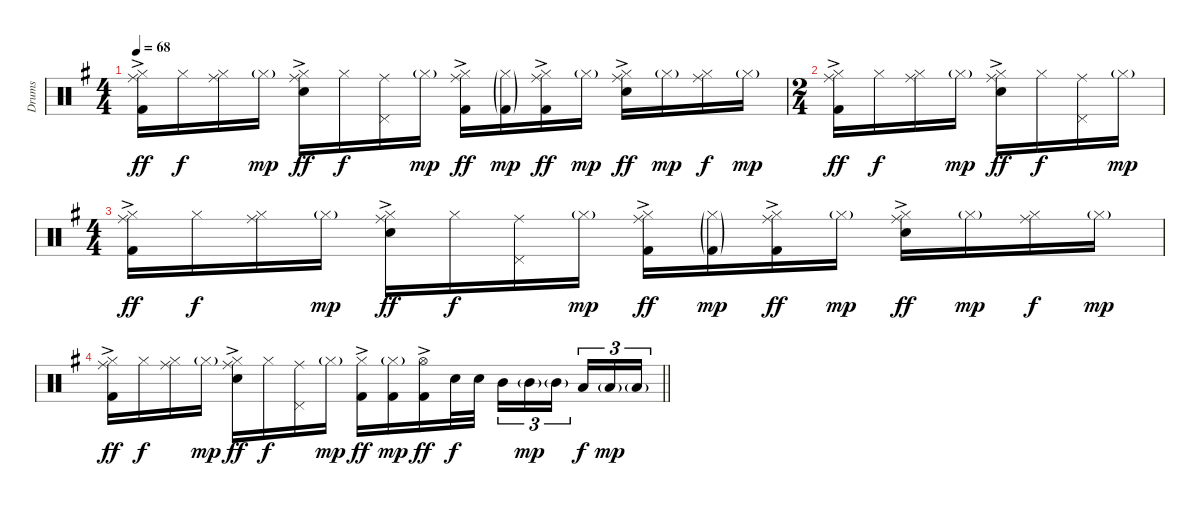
\track ("Drums" "Drums") {instrument percussion}
\staff {score}
\articulation defaults
\ts (4 4)
\tempo 68
\clef neutral
\ks g
("Hi-Hat (closed)" "Ride (middle)" "Kick (hit) 2"{ac}).16{dy ff} "Hi-Hat (closed)".16{dy f} ("Hi-Hat (closed)" "Ride (middle)").16 "Hi-Hat (closed)"{g}.16{dy mp} ("Hi-Hat (closed)" "Ride (middle)" "Snare (hit) 2"{ac}).16{dy ff} "Hi-Hat (closed)".16{dy f} ("Pedal Hi-Hat (hit)" "Ride (middle)").16 "Hi-Hat (closed)"{g}.16{dy mp} ("Hi-Hat (closed)" "Ride (middle)" "Kick (hit) 2"{ac}).16{dy ff} ("Hi-Hat (closed)"{g} "Kick (hit) 2"{g}).16{dy mp} ("Hi-Hat (closed)" "Ride (middle)" "Kick (hit) 2"{ac}).16{dy ff} "Hi-Hat (closed)"{g}.16{dy mp} ("Hi-Hat (closed)" "Ride (middle)" "Snare (hit) 2"{ac}).16{dy ff} "Hi-Hat (closed)"{g}.16{dy mp} ("Hi-Hat (closed)" "Ride (middle)").16{dy f} "Hi-Hat (closed)"{g}.16{dy mp} |
\ts (2 4)
("Hi-Hat (closed)" "Ride (middle)" "Kick (hit) 2"{ac}).16{dy ff} "Hi-Hat (closed)".16{dy f} ("Hi-Hat (closed)" "Ride (middle)").16 "Hi-Hat (closed)"{g}.16{dy mp} ("Hi-Hat (closed)" "Ride (middle)" "Snare (hit) 2"{ac}).16{dy ff} "Hi-Hat (closed)".16{dy f} ("Pedal Hi-Hat (hit)" "Ride (middle)").16 "Hi-Hat (closed)"{g}.16{dy mp} |
\ts (4 4)
("Hi-Hat (closed)" "Ride (middle)" "Kick (hit) 2"{ac}).16{dy ff} "Hi-Hat (closed)".16{dy f} ("Hi-Hat (closed)" "Ride (middle)").16 "Hi-Hat (closed)"{g}.16{dy mp} ("Hi-Hat (closed)" "Ride (middle)" "Snare (hit) 2"{ac}).16{dy ff} "Hi-Hat (closed)".16{dy f} ("Pedal Hi-Hat (hit)" "Ride (middle)").16 "Hi-Hat (closed)"{g}.16{dy mp} ("Hi-Hat (closed)" "Ride (middle)" "Kick (hit) 2"{ac}).16{dy ff} ("Hi-Hat (closed)"{g} "Kick (hit) 2"{g}).16{dy mp} ("Hi-Hat (closed)" "Ride (middle)" "Kick (hit) 2"{ac}).16{dy ff} "Hi-Hat (closed)"{g}.16{dy mp} ("Hi-Hat (closed)" "Ride (middle)" "Snare (hit) 2"{ac}).16{dy ff} "Hi-Hat (closed)"{g}.16{dy mp} ("Hi-Hat (closed)" "Ride (middle)").16{dy f} "Hi-Hat (closed)"{g}.16{dy mp} |
\barLineRight lightlight
("Hi-Hat (closed)" "Ride (middle)" "Kick (hit) 2"{ac}).16{dy ff} "Hi-Hat (closed)".16{dy f} ("Hi-Hat (closed)" "Ride (middle)").16 "Hi-Hat (closed)"{g}.16{dy mp} ("Hi-Hat (closed)" "Ride (middle)" "Snare (hit) 2"{ac}).16{dy ff} "Hi-Hat (closed)".16{dy f} ("Pedal Hi-Hat (hit)" "Ride (middle)").16 "Hi-Hat (closed)"{g}.16{dy mp} ("Hi-Hat (closed)" "Kick (hit) 2"{ac}).16{dy ff} ("Hi-Hat (closed)"{g} "Kick (hit) 2").16{dy mp} ("Hi-Hat (open)" "Kick (hit) 2"{ac}).16{dy ff} "Snare (hit) 2".32{dy f} "Snare (hit) 2".32 "Mid Tom (hit)".16{tu (3 2)} "Mid Tom (hit)"{g}.16{tu (3 2) dy mp} "Mid Tom (hit)"{g}.16{tu (3 2) beam splitsecondary} "Low Tom (hit)".16{tu (3 2) dy f} "Low Tom (hit)"{g}.16{tu (3 2) dy mp} "Low Floor Tom (hit)"{g}.16{tu (3 2)}
